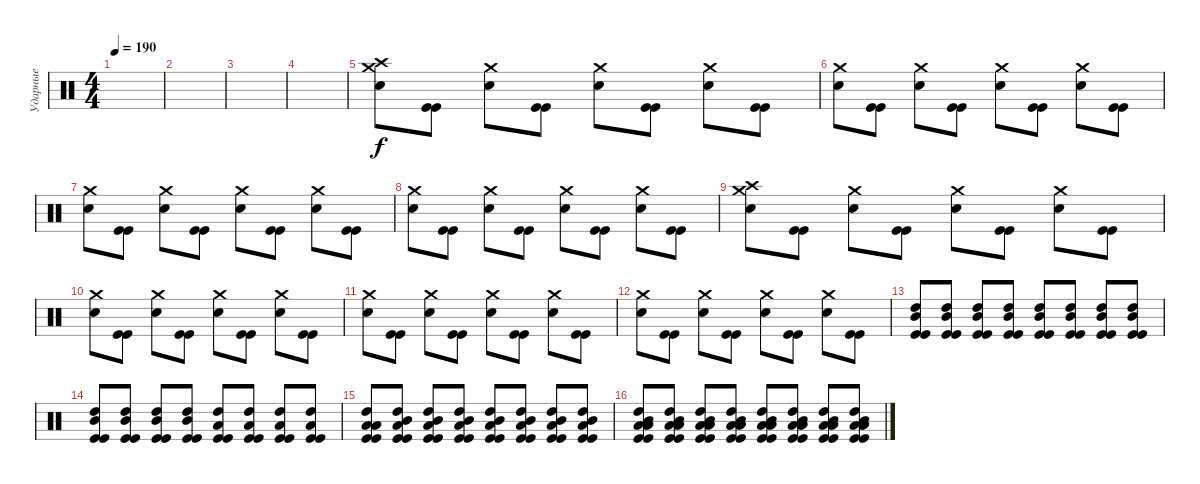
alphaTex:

\track ("Ударные" "Ударные") {instrument percussion}
\staff {score}
\articulation defaults
\ts (4 4)
\tempo 190
\clef neutral
\ks c
|
|
|
|
("Crash high (hit)" "Crash medium (hit)" "Electric Snare (hit)").8 ("Kick (hit)" "Kick (hit)").8 ("Crash medium (hit)" "Electric Snare (hit)").8 ("Kick (hit)" "Kick (hit)").8 ("Crash medium (hit)" "Electric Snare (hit)").8 ("Kick (hit)" "Kick (hit)").8 ("Crash medium (hit)" "Electric Snare (hit)").8 ("Kick (hit)" "Kick (hit)").8 |
("Crash medium (hit)" "Electric Snare (hit)").8 ("Kick (hit)" "Kick (hit)").8 ("Crash medium (hit)" "Electric Snare (hit)").8 ("Kick (hit)" "Kick (hit)").8 ("Crash medium (hit)" "Electric Snare (hit)").8 ("Kick (hit)" "Kick (hit)").8 ("Crash medium (hit)" "Electric Snare (hit)").8 ("Kick (hit)" "Kick (hit)").8 |
("Crash medium (hit)" "Electric Snare (hit)").8 ("Kick (hit)" "Kick (hit)").8 ("Crash medium (hit)" "Electric Snare (hit)").8 ("Kick (hit)" "Kick (hit)").8 ("Crash medium (hit)" "Electric Snare (hit)").8 ("Kick (hit)" "Kick (hit)").8 ("Crash medium (hit)" "Electric Snare (hit)").8 ("Kick (hit)" "Kick (hit)").8 |
("Crash medium (hit)" "Electric Snare (hit)").8 ("Kick (hit)" "Kick (hit)").8 ("Crash medium (hit)" "Electric Snare (hit)").8 ("Kick (hit)" "Kick (hit)").8 ("Crash medium (hit)" "Electric Snare (hit)").8 ("Kick (hit)" "Kick (hit)").8 ("Crash medium (hit)" "Electric Snare (hit)").8 ("Kick (hit)" "Kick (hit)").8 |
("Crash high (hit)" "Crash medium (hit)" "Electric Snare (hit)").8 ("Kick (hit)" "Kick (hit)").8 ("Crash medium (hit)" "Electric Snare (hit)").8 ("Kick (hit)" "Kick (hit)").8 ("Crash medium (hit)" "Electric Snare (hit)").8 ("Kick (hit)" "Kick (hit)").8 ("Crash medium (hit)" "Electric Snare (hit)").8 ("Kick (hit)" "Kick (hit)").8 |
("Crash medium (hit)" "Electric Snare (hit)").8 ("Kick (hit)" "Kick (hit)").8 ("Crash medium (hit)" "Electric Snare (hit)").8 ("Kick (hit)" "Kick (hit)").8 ("Crash medium (hit)" "Electric Snare (hit)").8 ("Kick (hit)" "Kick (hit)").8 ("Crash medium (hit)" "Electric Snare (hit)").8 ("Kick (hit)" "Kick (hit)").8 |
("Crash medium (hit)" "Electric Snare (hit)").8 ("Kick (hit)" "Kick (hit)").8 ("Crash medium (hit)" "Electric Snare (hit)").8 ("Kick (hit)" "Kick (hit)").8 ("Crash medium (hit)" "Electric Snare (hit)").8 ("Kick (hit)" "Kick (hit)").8 ("Crash medium (hit)" "Electric Snare (hit)").8 ("Kick (hit)" "Kick (hit)").8 |
("Crash medium (hit)" "Electric Snare (hit)").8 ("Kick (hit)" "Kick (hit)").8 ("Crash medium (hit)" "Electric Snare (hit)").8 ("Kick (hit)" "Kick (hit)").8 ("Crash medium (hit)" "Electric Snare (hit)").8 ("Kick (hit)" "Kick (hit)").8 ("Crash medium (hit)" "Electric Snare (hit)").8 ("Kick (hit)" "Kick (hit)").8 |
("High Tom (hit)" "Mid Tom (hit)" "Kick (hit)" "Kick (hit)").8{volume 6} ("High Tom (hit)" "Mid Tom (hit)" "Kick (hit)" "Kick (hit)").8{volume 16} ("High Tom (hit)" "Mid Tom (hit)" "Kick (hit)" "Kick (hit)").8 ("High Tom (hit)" "Mid Tom (hit)" "Kick (hit)" "Kick (hit)").8 ("High Tom (hit)" "Mid Tom (hit)" "Kick (hit)" "Kick (hit)").8 ("High Tom (hit)" "Mid Tom (hit)" "Kick (hit)" "Kick (hit)").8 ("High Tom (hit)" "Mid Tom (hit)" "Kick (hit)" "Kick (hit)").8 ("High Tom (hit)" "Mid Tom (hit)" "Kick (hit)" "Kick (hit)").8 |
("High Tom (hit)" "Mid Tom (hit)" "Kick (hit)" "Kick (hit)").8 ("High Tom (hit)" "Mid Tom (hit)" "Kick (hit)" "Kick (hit)").8 ("High Tom (hit)" "Mid Tom (hit)" "Kick (hit)" "Kick (hit)").8 ("High Tom (hit)" "Mid Tom (hit)" "Kick (hit)" "Kick (hit)").8 ("High Tom (hit)" "Low Tom (hit)" "Kick (hit)" "Kick (hit)").8 ("High Tom (hit)" "Low Tom (hit)" "Kick (hit)" "Kick (hit)").8 ("High Tom (hit)" "Low Tom (hit)" "Kick (hit)" "Kick (hit)").8 ("High Tom (hit)" "Low Tom (hit)" "Kick (hit)" "Kick (hit)").8 |
("High Tom (hit)" "Low Tom (hit)" "Low Tom (hit)" "Kick (hit)" "Kick (hit)").8 ("High Tom (hit)" "Mid Tom (hit)" "Low Tom (hit)" "Kick (hit)" "Kick (hit)").8 ("High Tom (hit)" "Mid Tom (hit)" "Low Tom (hit)" "Kick (hit)" "Kick (hit)").8 ("High Tom (hit)" "Mid Tom (hit)" "Low Tom (hit)" "Kick (hit)" "Kick (hit)").8 ("High Tom (hit)" "Mid Tom (hit)" "Low Tom (hit)" "Kick (hit)" "Kick (hit)").8 ("High Tom (hit)" "Mid Tom (hit)" "Low Tom (hit)" "Kick (hit)" "Kick (hit)").8 ("High Tom (hit)" "Mid Tom (hit)" "Low Tom (hit)" "Kick (hit)" "Kick (hit)").8 ("High Tom (hit)" "Mid Tom (hit)" "Low Tom (hit)" "Kick (hit)" "Kick (hit)").8 |
("Low Floor Tom (hit)" "High Tom (hit)" "Mid Tom (hit)" "Low Tom (hit)" "Kick (hit)" "Kick (hit)").8 ("Low Floor Tom (hit)" "High Tom (hit)" "Mid Tom (hit)" "Low Tom (hit)" "Kick (hit)" "Kick (hit)").8 ("Low Floor Tom (hit)" "High Tom (hit)" "Mid Tom (hit)" "Low Tom (hit)" "Kick (hit)" "Kick (hit)").8 ("Low Floor Tom (hit)" "High Tom (hit)" "Mid Tom (hit)" "Low Tom (hit)" "Kick (hit)" "Kick (hit)").8 ("Low Floor Tom (hit)" "High Tom (hit)" "Mid Tom (hit)" "Low Tom (hit)" "Kick (hit)" "Kick (hit)").8 ("Low Floor Tom (hit)" "High Tom (hit)" "Mid Tom (hit)" "Low Tom (hit)" "Kick (hit)" "Kick (hit)").8 ("Low Floor Tom (hit)" "High Tom (hit)" "Mid Tom (hit)" "Low Tom (hit)" "Kick (hit)" "Kick (hit)").8 ("Low Floor Tom (hit)" "High Tom (hit)" "Mid Tom (hit)" "Low Tom (hit)" "Kick (hit)" "Kick (hit)").8
